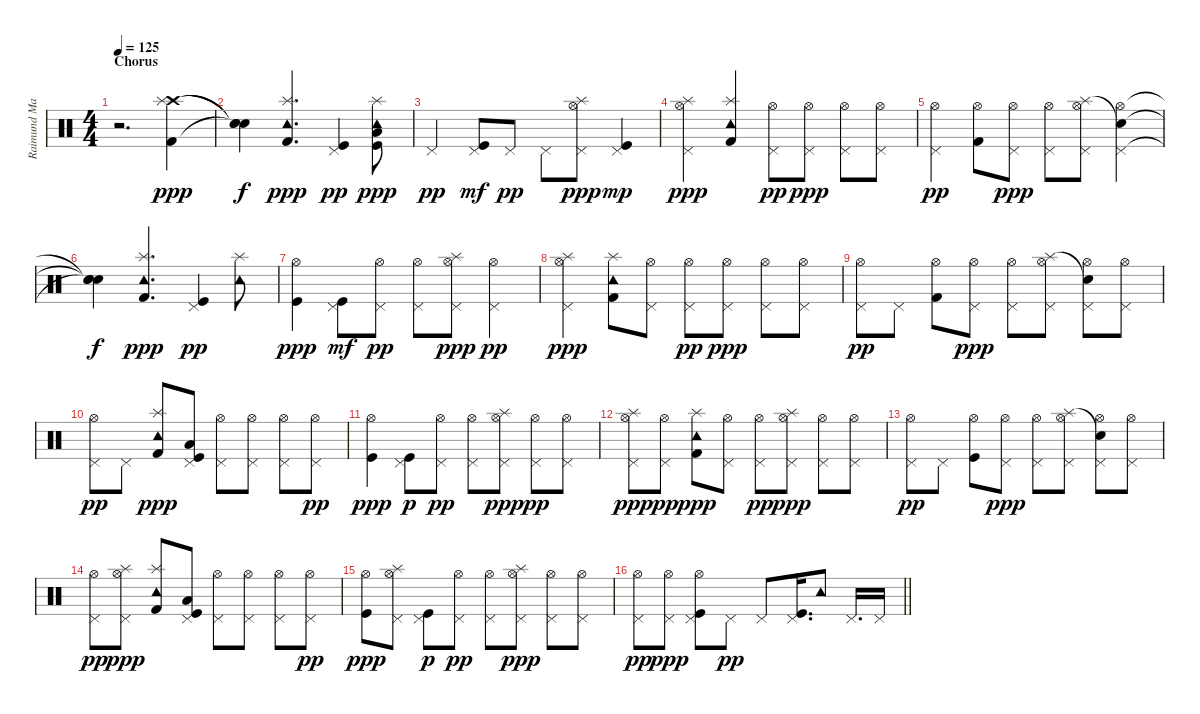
\track ("Raimund Marasigan (Drums)" "Raimund Ma") {instrument percussion}
\staff {score}
\articulation defaults
\ts (4 4)
\section ("" "Chorus")
\tempo 125
\clef neutral
\ks c
r.2{d dy ppp} ("Kick (hit) 2" "Crash high (hit)" "Splash (hit)").4 |
("Snare (hit)"{t} "Snare (hit)"{t} "Snare (hit)"{t}).4{dy f} ("Kick (hit) 2" "Tambourine (hit)" "Splash (hit)").4{d bd 60 dy ppp} ("Kick (hit)" "Pedal Hi-Hat (hit)").4{dy pp} ("Low Tom (hit)" "Kick (hit)" "Splash (hit)" "Tambourine (hit)").8{dy ppp} |
"Pedal Hi-Hat (hit)".4{dy pp} ("Pedal Hi-Hat (hit)" "Kick (hit)").8{dy mf} "Pedal Hi-Hat (hit)".8{dy pp} "Pedal Hi-Hat (hit)".8 ("Pedal Hi-Hat (hit)" "Hi-Hat (open)" "Splash (hit)").8{dy ppp} ("Pedal Hi-Hat (hit)" "Kick (hit)").4{dy mp} |
("Pedal Hi-Hat (hit)" "Hi-Hat (open)" "Splash (hit)").4{dy ppp} ("Kick (hit) 2" "Tambourine (hit)" "Splash (hit)").4{bd 60} ("Pedal Hi-Hat (hit)" "Hi-Hat (open)").8{dy pp} ("Pedal Hi-Hat (hit)" "Hi-Hat (open)").8{dy ppp} ("Pedal Hi-Hat (hit)" "Hi-Hat (open)").8 ("Pedal Hi-Hat (hit)" "Hi-Hat (open)").8 |
("Pedal Hi-Hat (hit)" "Hi-Hat (open)").4{dy pp} ("Kick (hit) 2" "Hi-Hat (open)").8{bd 60} ("Pedal Hi-Hat (hit)" "Hi-Hat (open)").8{dy ppp} ("Pedal Hi-Hat (hit)" "Hi-Hat (open)").8 ("Pedal Hi-Hat (hit)" "Hi-Hat (open)" "Splash (hit)").8 ("Pedal Hi-Hat (hit)" "Hi-Hat (open)" "Snare (hit)"{t}).4 |
("Snare (hit)"{t} "Snare (hit)"{t} "Snare (hit)"{t}).4{dy f} ("Kick (hit) 2" "Tambourine (hit)" "Splash (hit)").4{d bd 60 dy ppp} ("Kick (hit)" "Pedal Hi-Hat (hit)").4{dy pp} ("Splash (hit)" "Tambourine (hit)").8 |
("Kick (hit)" "Hi-Hat (open)").4{dy ppp} ("Pedal Hi-Hat (hit)" "Kick (hit)").8{dy mf} ("Pedal Hi-Hat (hit)" "Hi-Hat (open)").8{dy pp} ("Pedal Hi-Hat (hit)" "Hi-Hat (open)").8 ("Pedal Hi-Hat (hit)" "Hi-Hat (open)" "Splash (hit)").8{dy ppp} ("Pedal Hi-Hat (hit)" "Hi-Hat (open)").4{dy pp} |
("Pedal Hi-Hat (hit)" "Hi-Hat (open)" "Splash (hit)").4{dy ppp} ("Kick (hit) 2" "Tambourine (hit)" "Splash (hit)").8{bd 60} ("Pedal Hi-Hat (hit)" "Hi-Hat (open)").8 ("Pedal Hi-Hat (hit)" "Hi-Hat (open)").8{dy pp} ("Pedal Hi-Hat (hit)" "Hi-Hat (open)").8{dy ppp} ("Pedal Hi-Hat (hit)" "Hi-Hat (open)").8 ("Pedal Hi-Hat (hit)" "Hi-Hat (open)").8 |
("Pedal Hi-Hat (hit)" "Hi-Hat (open)").8{dy pp} "Pedal Hi-Hat (hit)".8 ("Kick (hit) 2" "Hi-Hat (open)").8{bd 60} ("Pedal Hi-Hat (hit)" "Hi-Hat (open)").8{dy ppp} ("Pedal Hi-Hat (hit)" "Hi-Hat (open)").8 ("Pedal Hi-Hat (hit)" "Hi-Hat (open)" "Splash (hit)").8 ("Pedal Hi-Hat (hit)" "Hi-Hat (open)" "Snare (hit)"{t}).8 ("Pedal Hi-Hat (hit)" "Hi-Hat (open)").8 |
("Pedal Hi-Hat (hit)" "Hi-Hat (open)").8{dy pp} "Pedal Hi-Hat (hit)".8 ("Kick (hit) 2" "Tambourine (hit)" "Splash (hit)").8{bd 60 dy ppp} ("Pedal Hi-Hat (hit)" "Kick (hit)" "Low Tom (hit)").8 ("Pedal Hi-Hat (hit)" "Hi-Hat (open)").8 ("Pedal Hi-Hat (hit)" "Hi-Hat (open)").8 ("Pedal Hi-Hat (hit)" "Hi-Hat (open)").8 ("Pedal Hi-Hat (hit)" "Hi-Hat (open)").8{dy pp} |
("Kick (hit)" "Hi-Hat (open)").4{dy ppp} ("Pedal Hi-Hat (hit)" "Kick (hit)").8{dy p} ("Pedal Hi-Hat (hit)" "Hi-Hat (open)").8{dy pp} ("Pedal Hi-Hat (hit)" "Hi-Hat (open)").8 ("Pedal Hi-Hat (hit)" "Hi-Hat (open)" "Splash (hit)").8{dy ppp} ("Pedal Hi-Hat (hit)" "Hi-Hat (open)").8{dy pp} ("Pedal Hi-Hat (hit)" "Hi-Hat (open)").8 |
("Pedal Hi-Hat (hit)" "Hi-Hat (open)" "Splash (hit)").8{dy ppp} ("Pedal Hi-Hat (hit)" "Hi-Hat (open)").8{dy pp} ("Kick (hit) 2" "Tambourine (hit)" "Splash (hit)").8{bd 60 dy ppp} ("Pedal Hi-Hat (hit)" "Hi-Hat (open)").8 ("Pedal Hi-Hat (hit)" "Hi-Hat (open)").8{dy pp} ("Pedal Hi-Hat (hit)" "Hi-Hat (open)" "Splash (hit)").8{dy ppp} ("Pedal Hi-Hat (hit)" "Hi-Hat (open)").8 ("Pedal Hi-Hat (hit)" "Hi-Hat (open)").8 |
("Pedal Hi-Hat (hit)" "Hi-Hat (open)").8{dy pp} "Pedal Hi-Hat (hit)".8 ("Kick (hit)" "Hi-Hat (open)").8{bd 60} ("Pedal Hi-Hat (hit)" "Hi-Hat (open)").8{dy ppp} ("Pedal Hi-Hat (hit)" "Hi-Hat (open)").8 ("Pedal Hi-Hat (hit)" "Hi-Hat (open)" "Splash (hit)").8 ("Pedal Hi-Hat (hit)" "Hi-Hat (open)" "Snare (hit)"{t}).8 ("Pedal Hi-Hat (hit)" "Hi-Hat (open)").8 |
("Pedal Hi-Hat (hit)" "Hi-Hat (open)").8{dy pp} ("Pedal Hi-Hat (hit)" "Hi-Hat (open)" "Splash (hit)").8{dy ppp} ("Kick (hit) 2" "Tambourine (hit)" "Splash (hit)").8{bd 60} ("Pedal Hi-Hat (hit)" "Kick (hit)" "Low Tom (hit)").8 ("Pedal Hi-Hat (hit)" "Hi-Hat (open)").8 ("Pedal Hi-Hat (hit)" "Hi-Hat (open)").8 ("Pedal Hi-Hat (hit)" "Hi-Hat (open)").8 ("Pedal Hi-Hat (hit)" "Hi-Hat (open)").8{dy pp} |
("Kick (hit)" "Hi-Hat (open)").8{dy ppp} ("Pedal Hi-Hat (hit)" "Hi-Hat (open)" "Splash (hit)").8 ("Pedal Hi-Hat (hit)" "Kick (hit)").8{dy p} ("Pedal Hi-Hat (hit)" "Hi-Hat (open)").8{dy pp} ("Pedal Hi-Hat (hit)" "Hi-Hat (open)").8 ("Pedal Hi-Hat (hit)" "Hi-Hat (open)" "Splash (hit)").8{dy ppp} ("Pedal Hi-Hat (hit)" "Hi-Hat (open)").8 ("Pedal Hi-Hat (hit)" "Hi-Hat (open)").8 |
\barLineRight lightlight
("Pedal Hi-Hat (hit)" "Hi-Hat (open)").8{dy pp} ("Pedal Hi-Hat (hit)" "Hi-Hat (open)").8{dy ppp} ("Pedal Hi-Hat (hit)" "Hi-Hat (open)" "Kick (hit)").8 "Pedal Hi-Hat (hit)".8{dy pp} "Pedal Hi-Hat (hit)".8 ("Pedal Hi-Hat (hit)" "Kick (hit)").16{d} "Tambourine (hit)".8 "Pedal Hi-Hat (hit)".16{d} "Pedal Hi-Hat (hit)".16
